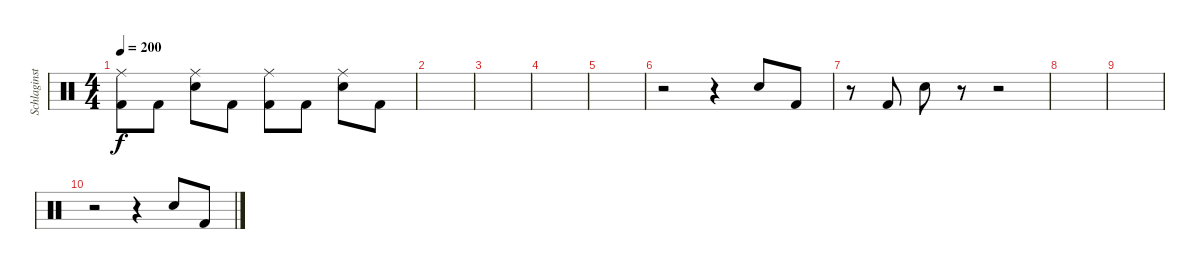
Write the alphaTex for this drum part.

\track ("Schlaginstrumente - Auswahl" "Schlaginst") {instrument percussion}
\staff {score}
\articulation defaults
\ts (4 4)
\tempo 200
\clef neutral
\ks c
("Ride (middle)" "Kick (hit) 2").8{dy f} "Kick (hit) 2".8 ("Ride (middle)" "Snare (hit) 2").8 "Kick (hit) 2".8 ("Ride (middle)" "Kick (hit) 2").8 "Kick (hit) 2".8 ("Ride (middle)" "Snare (hit) 2").8 "Kick (hit) 2".8 |
|
|
|
|
r.2 r.4 "Snare (hit) 2".8 "Kick (hit) 2".8 |
r.8 "Kick (hit) 2".8 "Snare (hit) 2".8 r.8 r.2 |
|
|
r.2 r.4 "Snare (hit) 2".8 "Kick (hit) 2".8
